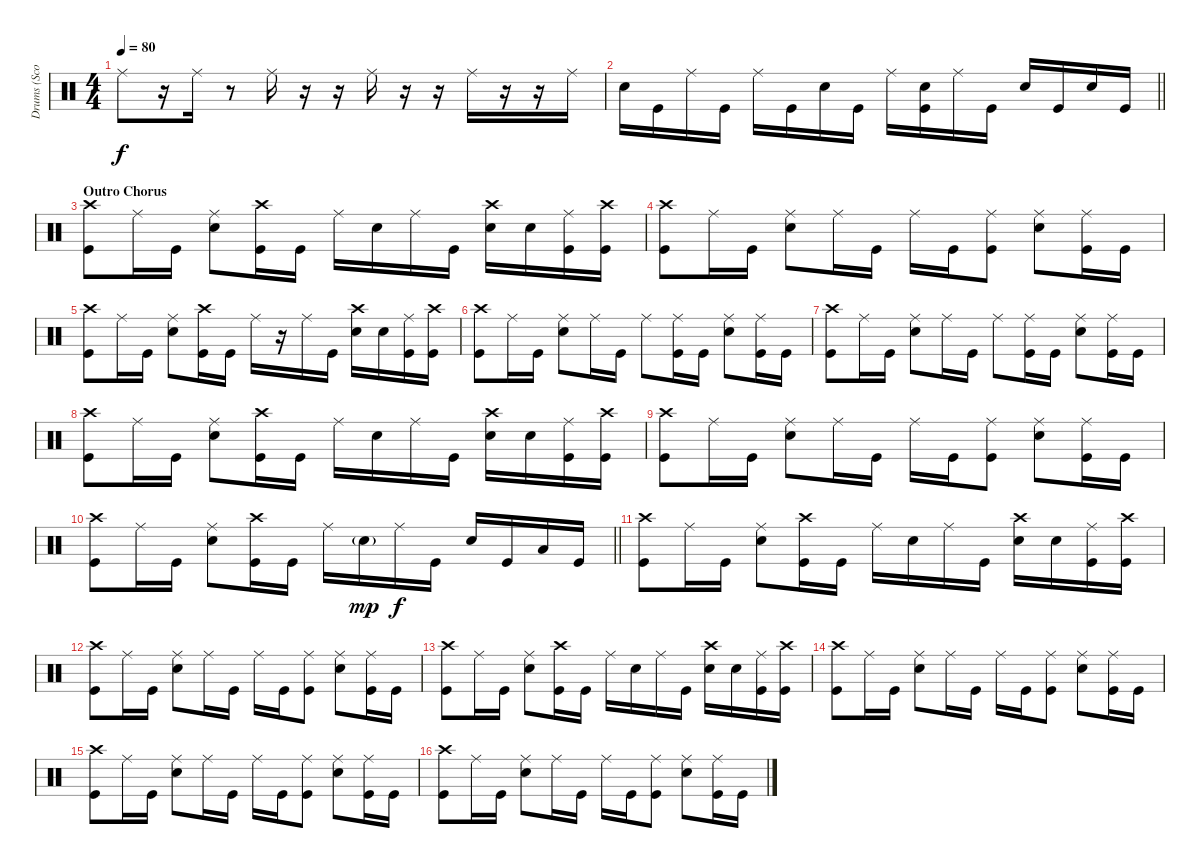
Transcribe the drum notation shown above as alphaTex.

\track ("Drums (Scott Phillips)" "Drums (Sco") {instrument percussion}
\staff {score}
\articulation defaults
\ts (4 4)
\tempo 80
\clef neutral
\ks c "Ride (middle)".8{dy f}
r.16 "Ride (middle)".16 r.8 "Ride (middle)".16 r.16 r.16 "Ride (middle)".16 r.16 r.16 "Ride (middle)".16 r.16 r.16 "Ride (middle)".16 |
\barLineRight lightlight "Snare (hit) 2".16 "Kick (hit)".16 "Ride (middle)".16 "Kick (hit)".16 "Ride (middle)".16 "Kick (hit)".16 "Snare (hit) 2".16 "Kick (hit)".16 "Ride (middle)".16
("Snare (hit) 2" "Kick (hit)").16 "Ride (middle)".16 "Kick (hit)".16 "Snare (hit) 2".16 "Kick (hit)".16 "Snare (hit) 2".16 "Kick (hit)".16 |
\section ("" "Outro Chorus")
("Crash high (hit)" "Kick (hit)").8 "Ride (middle)".16 "Kick (hit)".16 ("Ride (middle)" "Snare (hit) 2").8 ("Crash high (hit)" "Kick (hit)").16 "Kick (hit)".16 "Ride (middle)".16 "Snare (hit) 2".16 "Ride (middle)".16 "Kick (hit)".16 ("Crash high (hit)" "Snare (hit) 2").16 "Snare (hit) 2".16 ("Ride (middle)" "Kick (hit)").16 ("Crash high (hit)" "Kick (hit)").16 |
("Crash high (hit)" "Kick (hit)").8 "Ride (middle)".16 "Kick (hit)".16 ("Ride (middle)" "Snare (hit) 2").8 "Ride (middle)".16 "Kick (hit)".16 "Ride (middle)".16 "Kick (hit)".16 ("Ride (middle)" "Kick (hit)").8 ("Ride (middle)" "Snare (hit) 2").8 ("Ride (middle)" "Kick (hit)").16 "Kick (hit)".16 |
("Crash high (hit)" "Kick (hit)").8 "Ride (middle)".16 "Kick (hit)".16 ("Ride (middle)" "Snare (hit) 2").8 ("Crash high (hit)" "Kick (hit)").16 "Kick (hit)".16 "Ride (middle)".16 r.16 "Ride (middle)".16 "Kick (hit)".16 ("Crash high (hit)" "Snare (hit) 2").16 "Snare (hit) 2".16 ("Ride (middle)" "Kick (hit)").16 ("Crash high (hit)" "Kick (hit)").16 |
("Crash high (hit)" "Kick (hit)").8 "Ride (middle)".16 "Kick (hit)".16 ("Ride (middle)" "Snare (hit) 2").8 "Ride (middle)".16 "Kick (hit)".16 "Ride (middle)".8 ("Ride (middle)" "Kick (hit)").16 "Kick (hit)".16 ("Ride (middle)" "Snare (hit) 2").8 ("Ride (middle)" "Kick (hit)").16 "Kick (hit)".16 |
("Crash high (hit)" "Kick (hit)").8 "Ride (middle)".16 "Kick (hit)".16 ("Ride (middle)" "Snare (hit) 2").8 "Ride (middle)".16 "Kick (hit)".16 "Ride (middle)".8 ("Ride (middle)" "Kick (hit)").16 "Kick (hit)".16 ("Ride (middle)" "Snare (hit) 2").8 ("Ride (middle)" "Kick (hit)").16 "Kick (hit)".16 |
("Crash high (hit)" "Kick (hit)").8 "Ride (middle)".16 "Kick (hit)".16 ("Ride (middle)" "Snare (hit) 2").8 ("Crash high (hit)" "Kick (hit)").16 "Kick (hit)".16 "Ride (middle)".16 "Snare (hit) 2".16 "Ride (middle)".16 "Kick (hit)".16 ("Crash high (hit)" "Snare (hit) 2").16 "Snare (hit) 2".16 ("Ride (middle)" "Kick (hit)").16 ("Crash high (hit)" "Kick (hit)").16 |
("Crash high (hit)" "Kick (hit)").8 "Ride (middle)".16 "Kick (hit)".16 ("Ride (middle)" "Snare (hit) 2").8 "Ride (middle)".16 "Kick (hit)".16 "Ride (middle)".16 "Kick (hit)".16 ("Ride (middle)" "Kick (hit)").8 ("Ride (middle)" "Snare (hit) 2").8 ("Ride (middle)" "Kick (hit)").16 "Kick (hit)".16 |
\barLineRight lightlight
("Crash high (hit)" "Kick (hit)").8 "Ride (middle)".16 "Kick (hit)".16 ("Ride (middle)" "Snare (hit) 2").8 ("Crash high (hit)" "Kick (hit)").16 "Kick (hit)".16 "Ride (middle)".16 "Snare (hit) 2"{g}.16{dy mp} "Ride (middle)".16{dy f} "Kick (hit)".16 "Snare (hit) 2".16 "Kick (hit)".16 "Low Tom (hit)".16 "Kick (hit)".16 |
("Crash high (hit)" "Kick (hit)").8 "Ride (middle)".16 "Kick (hit)".16 ("Ride (middle)" "Snare (hit) 2").8 ("Crash high (hit)" "Kick (hit)").16 "Kick (hit)".16 "Ride (middle)".16 "Snare (hit) 2".16 "Ride (middle)".16 "Kick (hit)".16 ("Crash high (hit)" "Snare (hit) 2").16 "Snare (hit) 2".16 ("Ride (middle)" "Kick (hit)").16 ("Crash high (hit)" "Kick (hit)").16 |
("Crash high (hit)" "Kick (hit)").8 "Ride (middle)".16 "Kick (hit)".16 ("Ride (middle)" "Snare (hit) 2").8 "Ride (middle)".16 "Kick (hit)".16 "Ride (middle)".16 "Kick (hit)".16 ("Ride (middle)" "Kick (hit)").8 ("Ride (middle)" "Snare (hit) 2").8 ("Ride (middle)" "Kick (hit)").16 "Kick (hit)".16 |
("Crash high (hit)" "Kick (hit)").8 "Ride (middle)".16 "Kick (hit)".16 ("Ride (middle)" "Snare (hit) 2").8 ("Crash high (hit)" "Kick (hit)").16 "Kick (hit)".16 "Ride (middle)".16 "Snare (hit) 2".16 "Ride (middle)".16 "Kick (hit)".16 ("Crash high (hit)" "Snare (hit) 2").16 "Snare (hit) 2".16 ("Ride (middle)" "Kick (hit)").16 ("Crash high (hit)" "Kick (hit)").16 |
("Crash high (hit)" "Kick (hit)").8 "Ride (middle)".16 "Kick (hit)".16 ("Ride (middle)" "Snare (hit) 2").8 "Ride (middle)".16 "Kick (hit)".16 "Ride (middle)".16 "Kick (hit)".16 ("Ride (middle)" "Kick (hit)").8 ("Ride (middle)" "Snare (hit) 2").8 ("Ride (middle)" "Kick (hit)").16 "Kick (hit)".16 |
("Crash high (hit)" "Kick (hit)").8 "Ride (middle)".16 "Kick (hit)".16 ("Ride (middle)" "Snare (hit) 2").8 "Ride (middle)".16 "Kick (hit)".16 "Ride (middle)".16 "Kick (hit)".16 ("Ride (middle)" "Kick (hit)").8 ("Ride (middle)" "Snare (hit) 2").8 ("Ride (middle)" "Kick (hit)").16 "Kick (hit)".16 |
("Crash high (hit)" "Kick (hit)").8 "Ride (middle)".16 "Kick (hit)".16 ("Ride (middle)" "Snare (hit) 2").8 "Ride (middle)".16 "Kick (hit)".16 "Ride (middle)".16 "Kick (hit)".16 ("Ride (middle)" "Kick (hit)").8 ("Ride (middle)" "Snare (hit) 2").8 ("Ride (middle)" "Kick (hit)").16 "Kick (hit)".16
